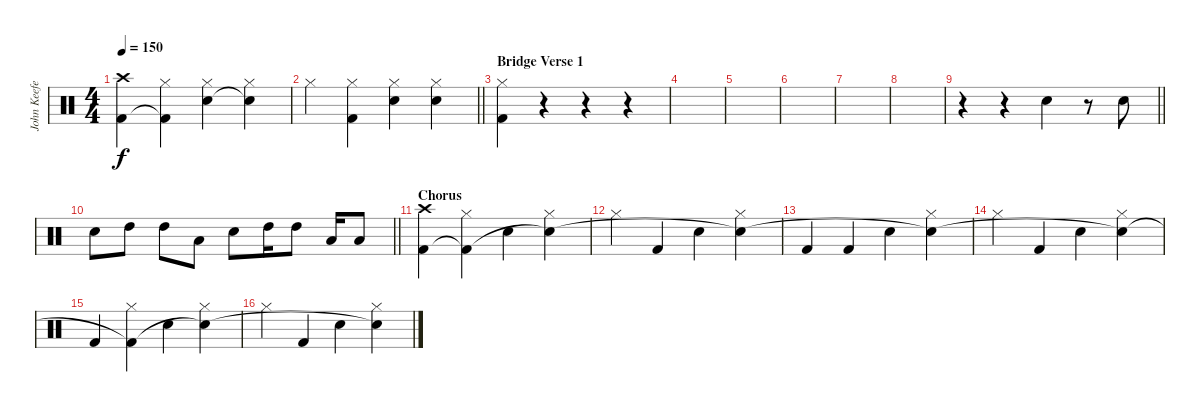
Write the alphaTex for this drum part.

\track ("John Keefe (Percussion)" "John Keefe") {instrument percussion}
\staff {score}
\articulation defaults
\ts (4 4)
\tempo 150
\clef neutral
\ks c
("Crash high (hit)" "Kick (hit) 2").4{dy f} ("Hi-Hat (closed)" "Kick (hit) 2"{t}).4 ("Hi-Hat (closed)" "Snare (hit) 2").4 ("Hi-Hat (closed)" "Snare (hit) 2"{t}).4 |
\barLineRight lightlight "Hi-Hat (closed)".4
("Hi-Hat (closed)" "Kick (hit) 2").4 ("Hi-Hat (closed)" "Snare (hit) 2").4 ("Hi-Hat (closed)" "Snare (hit) 2").4 |
\section ("" "Bridge Verse 1")
("Hi-Hat (closed)" "Kick (hit) 2").4 r.4 r.4 r.4 |
|
|
|
|
|
\barLineRight lightlight
r.4 r.4 "Snare (hit) 2".4 r.8 "Snare (hit) 2".8 |
\section ("" "")
\barLineRight lightlight "Snare (hit) 2".8 "High Tom (hit)".8 "High Tom (hit)".8 "Low Tom (hit)".8 "Snare (hit) 2".8 "High Tom (hit)".16 "High Tom (hit)".8 "Low Tom (hit)".16 "Low Tom (hit)".8
|
\section ("" "Chorus")
("Crash high (hit)" "Kick (hit) 2").4 ("Hi-Hat (closed)" "Kick (hit) 2"{t}).4 "Snare (hit) 2".4 ("Hi-Hat (closed)" "Snare (hit) 2"{t}).4 |
"Hi-Hat (closed)".4 "Kick (hit) 2".4 "Snare (hit) 2".4 ("Hi-Hat (closed)" "Snare (hit) 2"{t}).4 |
"Kick (hit) 2".4 "Kick (hit) 2".4 "Snare (hit) 2".4 ("Hi-Hat (closed)" "Snare (hit) 2"{t}).4 |
"Hi-Hat (closed)".4 "Kick (hit) 2".4 "Snare (hit) 2".4 ("Hi-Hat (closed)" "Snare (hit) 2"{t}).4 |
"Kick (hit) 2".4 ("Hi-Hat (closed)" "Kick (hit) 2"{t}).4 "Snare (hit) 2".4 ("Hi-Hat (closed)" "Snare (hit) 2"{t}).4 |
"Hi-Hat (closed)".4 "Kick (hit) 2".4 "Snare (hit) 2".4 ("Hi-Hat (closed)" "Snare (hit) 2"{t}).4
